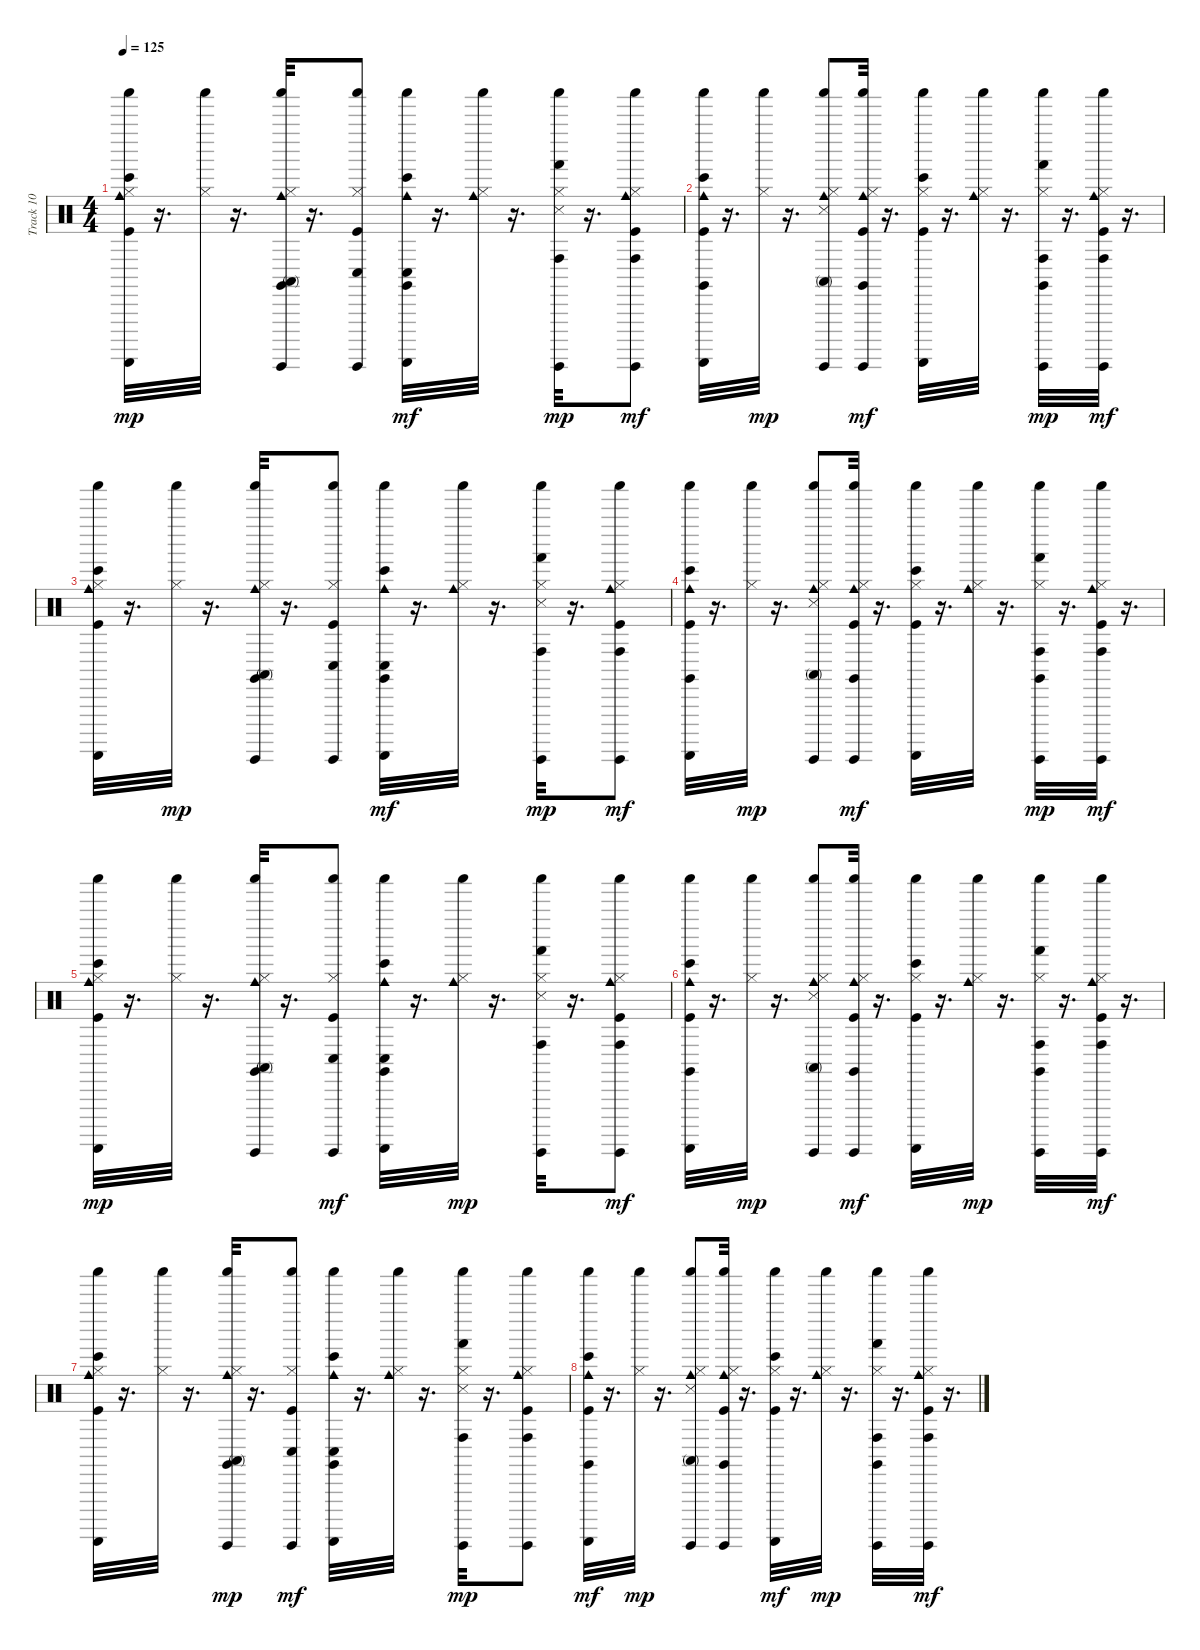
\track ("Track 10" "Track 10") {instrument percussion}
\staff {score}
\articulation defaults
\ts (4 4)
\tempo 125
\clef neutral
\ks c
("Shaker (hit)" "Bongo High (hit)" "Cowbell medium (hit)" "Guiro (scrap-return)" "Kick (hit)" "Hi-Hat (closed)").32{dy mp} r.16{d} ("Shaker (hit)" "Hi-Hat (closed)").32 r.16{d} ("Shaker (hit)" "Claves (hit)" "Conga high (mute)" "Cowbell medium (hit)" "Guiro (hit)" "Hi-Hat (closed)").32 r.16{d} ("Shaker (hit)" "Conga low (hit)" "Guiro (hit)" "Kick (hit)" "Hi-Hat (closed)").8 ("Shaker (hit)" "Claves (hit)" "Conga low (hit)" "Bongo High (hit)" "Cowbell medium (hit)" "Guiro (scrap-return)").32{dy mf} r.16{d} ("Shaker (hit)" "Cowbell medium (hit)" "Hi-Hat (closed)").32 r.16{d} ("Shaker (hit)" "Conga high (hit)" "Hand (hit)" "Guiro (hit)" "Hi-Hat (closed)" "Snare (side stick) 3").32{dy mp} r.16{d} ("Shaker (hit)" "Conga high (hit)" "Cowbell medium (hit)" "Guiro (hit)" "Kick (hit)" "Hi-Hat (closed)").8{dy mf} |
("Shaker (hit)" "Claves (hit)" "Bongo High (hit)" "Cowbell medium (hit)" "Guiro (scrap-return)" "Kick (hit)").32 r.16{d} ("Shaker (hit)" "Hi-Hat (closed)").32{dy mp} r.16{d} ("Shaker (hit)" "Conga high (mute)" "Cowbell medium (hit)" "Guiro (hit)" "Hi-Hat (closed)" "Snare (side stick) 3").8 ("Shaker (hit)" "Claves (hit)" "Cowbell medium (hit)" "Guiro (hit)" "Kick (hit)" "Hi-Hat (closed)").32{dy mf} r.16{d} ("Shaker (hit)" "Bongo High (hit)" "Guiro (scrap-return)" "Kick (hit)" "Hi-Hat (closed)").32 r.16{d} ("Shaker (hit)" "Cowbell medium (hit)" "Hi-Hat (closed)").32 r.16{d} ("Shaker (hit)" "Claves (hit)" "Conga high (hit)" "Hand (hit)" "Guiro (hit)" "Hi-Hat (closed)").32{dy mp} r.16{d} ("Shaker (hit)" "Conga high (hit)" "Cowbell medium (hit)" "Guiro (hit)" "Kick (hit)" "Hi-Hat (closed)").32{dy mf} r.16{d} |
("Shaker (hit)" "Bongo High (hit)" "Cowbell medium (hit)" "Guiro (scrap-return)" "Kick (hit)" "Hi-Hat (closed)").32 r.16{d} ("Shaker (hit)" "Hi-Hat (closed)").32{dy mp} r.16{d} ("Shaker (hit)" "Claves (hit)" "Conga high (mute)" "Cowbell medium (hit)" "Guiro (hit)" "Hi-Hat (closed)").32 r.16{d} ("Shaker (hit)" "Conga low (hit)" "Guiro (hit)" "Kick (hit)" "Hi-Hat (closed)").8 ("Shaker (hit)" "Claves (hit)" "Conga low (hit)" "Bongo High (hit)" "Cowbell medium (hit)" "Guiro (scrap-return)").32{dy mf} r.16{d} ("Shaker (hit)" "Cowbell medium (hit)" "Hi-Hat (closed)").32 r.16{d} ("Shaker (hit)" "Conga high (hit)" "Hand (hit)" "Guiro (hit)" "Hi-Hat (closed)" "Snare (side stick) 3").32{dy mp} r.16{d} ("Shaker (hit)" "Conga high (hit)" "Cowbell medium (hit)" "Guiro (hit)" "Kick (hit)" "Hi-Hat (closed)").8{dy mf} |
("Shaker (hit)" "Claves (hit)" "Bongo High (hit)" "Cowbell medium (hit)" "Guiro (scrap-return)" "Kick (hit)").32 r.16{d} ("Shaker (hit)" "Hi-Hat (closed)").32{dy mp} r.16{d} ("Shaker (hit)" "Conga high (mute)" "Cowbell medium (hit)" "Guiro (hit)" "Hi-Hat (closed)" "Snare (side stick) 3").8 ("Shaker (hit)" "Claves (hit)" "Cowbell medium (hit)" "Guiro (hit)" "Kick (hit)" "Hi-Hat (closed)").32{dy mf} r.16{d} ("Shaker (hit)" "Bongo High (hit)" "Guiro (scrap-return)" "Kick (hit)" "Hi-Hat (closed)").32 r.16{d} ("Shaker (hit)" "Cowbell medium (hit)" "Hi-Hat (closed)").32 r.16{d} ("Shaker (hit)" "Claves (hit)" "Conga high (hit)" "Hand (hit)" "Guiro (hit)" "Hi-Hat (closed)").32{dy mp} r.16{d} ("Shaker (hit)" "Conga high (hit)" "Cowbell medium (hit)" "Guiro (hit)" "Kick (hit)" "Hi-Hat (closed)").32{dy mf} r.16{d} |
("Shaker (hit)" "Bongo High (hit)" "Cowbell medium (hit)" "Guiro (scrap-return)" "Kick (hit)" "Hi-Hat (closed)").32{dy mp} r.16{d} ("Shaker (hit)" "Hi-Hat (closed)").32 r.16{d} ("Shaker (hit)" "Claves (hit)" "Conga high (mute)" "Cowbell medium (hit)" "Guiro (hit)" "Hi-Hat (closed)").32 r.16{d} ("Shaker (hit)" "Conga low (hit)" "Guiro (hit)" "Kick (hit)" "Hi-Hat (closed)").8{dy mf} ("Shaker (hit)" "Claves (hit)" "Conga low (hit)" "Bongo High (hit)" "Cowbell medium (hit)" "Guiro (scrap-return)").32 r.16{d} ("Shaker (hit)" "Cowbell medium (hit)" "Hi-Hat (closed)").32{dy mp} r.16{d} ("Shaker (hit)" "Conga high (hit)" "Hand (hit)" "Guiro (hit)" "Hi-Hat (closed)" "Snare (side stick) 3").32 r.16{d} ("Shaker (hit)" "Conga high (hit)" "Cowbell medium (hit)" "Guiro (hit)" "Kick (hit)" "Hi-Hat (closed)").8{dy mf} |
("Shaker (hit)" "Claves (hit)" "Bongo High (hit)" "Cowbell medium (hit)" "Guiro (scrap-return)" "Kick (hit)").32 r.16{d} ("Shaker (hit)" "Hi-Hat (closed)").32{dy mp} r.16{d} ("Shaker (hit)" "Conga high (mute)" "Cowbell medium (hit)" "Guiro (hit)" "Hi-Hat (closed)" "Snare (side stick) 3").8 ("Shaker (hit)" "Claves (hit)" "Cowbell medium (hit)" "Guiro (hit)" "Kick (hit)" "Hi-Hat (closed)").32{dy mf} r.16{d} ("Shaker (hit)" "Bongo High (hit)" "Guiro (scrap-return)" "Kick (hit)" "Hi-Hat (closed)").32 r.16{d} ("Shaker (hit)" "Cowbell medium (hit)" "Hi-Hat (closed)").32{dy mp} r.16{d} ("Shaker (hit)" "Claves (hit)" "Conga high (hit)" "Hand (hit)" "Guiro (hit)" "Hi-Hat (closed)").32 r.16{d} ("Shaker (hit)" "Conga high (hit)" "Cowbell medium (hit)" "Guiro (hit)" "Kick (hit)" "Hi-Hat (closed)").32{dy mf} r.16{d} |
("Shaker (hit)" "Bongo High (hit)" "Cowbell medium (hit)" "Guiro (scrap-return)" "Kick (hit)" "Hi-Hat (closed)").32 r.16{d} ("Shaker (hit)" "Hi-Hat (closed)").32 r.16{d} ("Shaker (hit)" "Claves (hit)" "Conga high (mute)" "Cowbell medium (hit)" "Guiro (hit)" "Hi-Hat (closed)").32{dy mp} r.16{d} ("Shaker (hit)" "Conga low (hit)" "Guiro (hit)" "Kick (hit)" "Hi-Hat (closed)").8{dy mf} ("Shaker (hit)" "Claves (hit)" "Conga low (hit)" "Bongo High (hit)" "Cowbell medium (hit)" "Guiro (scrap-return)").32 r.16{d} ("Shaker (hit)" "Cowbell medium (hit)" "Hi-Hat (closed)").32 r.16{d} ("Shaker (hit)" "Conga high (hit)" "Hand (hit)" "Guiro (hit)" "Hi-Hat (closed)" "Snare (side stick) 3").32{dy mp} r.16{d} ("Shaker (hit)" "Conga high (hit)" "Cowbell medium (hit)" "Guiro (hit)" "Kick (hit)" "Hi-Hat (closed)").8 |
("Shaker (hit)" "Claves (hit)" "Bongo High (hit)" "Cowbell medium (hit)" "Guiro (scrap-return)" "Kick (hit)").32{dy mf} r.16{d} ("Shaker (hit)" "Hi-Hat (closed)").32{dy mp} r.16{d} ("Shaker (hit)" "Conga high (mute)" "Cowbell medium (hit)" "Guiro (hit)" "Hi-Hat (closed)" "Snare (side stick) 3").8 ("Shaker (hit)" "Claves (hit)" "Cowbell medium (hit)" "Guiro (hit)" "Kick (hit)" "Hi-Hat (closed)").32 r.16{d} ("Shaker (hit)" "Bongo High (hit)" "Guiro (scrap-return)" "Kick (hit)" "Hi-Hat (closed)").32{dy mf} r.16{d} ("Shaker (hit)" "Cowbell medium (hit)" "Hi-Hat (closed)").32{dy mp} r.16{d} ("Shaker (hit)" "Claves (hit)" "Conga high (hit)" "Hand (hit)" "Guiro (hit)" "Hi-Hat (closed)").32 r.16{d} ("Shaker (hit)" "Conga high (hit)" "Cowbell medium (hit)" "Guiro (hit)" "Kick (hit)" "Hi-Hat (closed)").32{dy mf} r.16{d}
